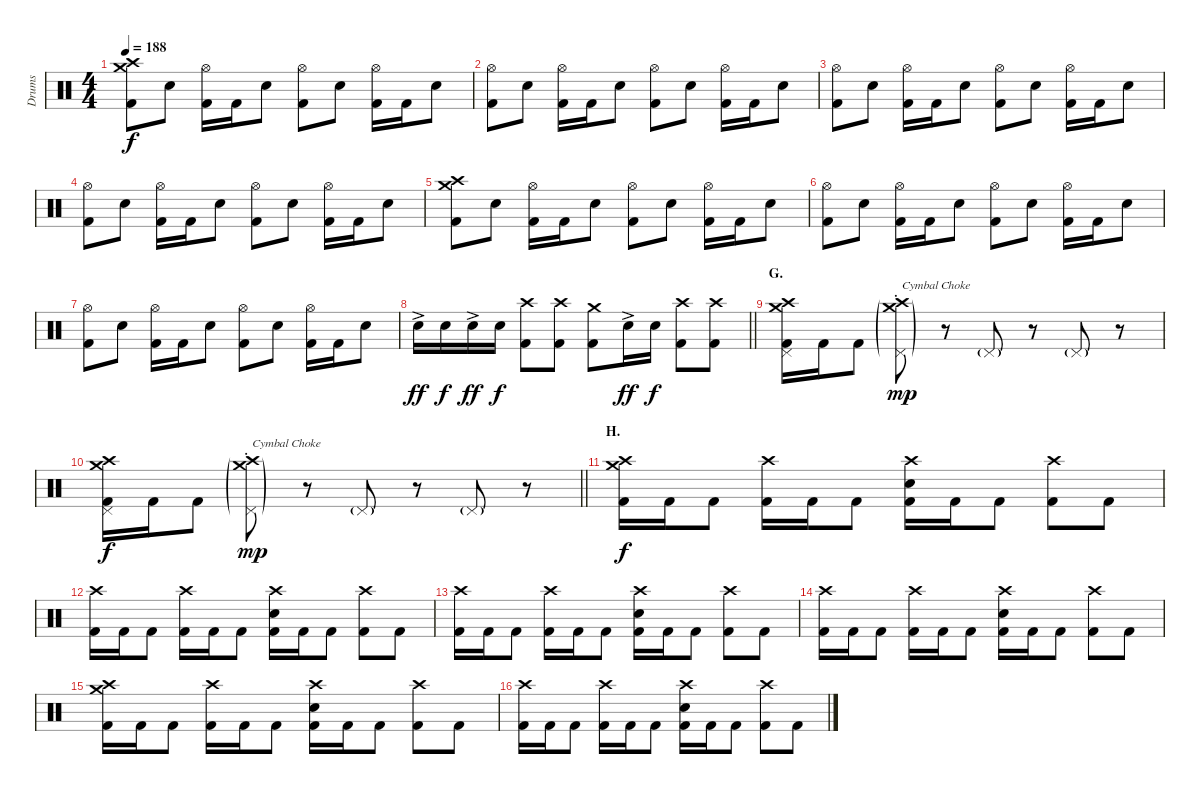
\track ("Drums" "Drums") {instrument percussion}
\staff {score}
\articulation defaults
\ts (4 4)
\tempo 188
\clef neutral
\ks c
("Crash medium (hit)" "Crash high (hit)" "Kick (hit) 2").8{dy f} "Electric Snare (hit)".8 ("Hi-Hat (open)" "Kick (hit) 2").16 "Kick (hit) 2".16 "Electric Snare (hit)".8 ("Hi-Hat (open)" "Kick (hit) 2").8 "Electric Snare (hit)".8 ("Hi-Hat (open)" "Kick (hit) 2").16 "Kick (hit) 2".16 "Electric Snare (hit)".8 |
("Hi-Hat (open)" "Kick (hit) 2").8 "Electric Snare (hit)".8 ("Hi-Hat (open)" "Kick (hit) 2").16 "Kick (hit) 2".16 "Electric Snare (hit)".8 ("Hi-Hat (open)" "Kick (hit) 2").8 "Electric Snare (hit)".8 ("Hi-Hat (open)" "Kick (hit) 2").16 "Kick (hit) 2".16 "Electric Snare (hit)".8 |
("Hi-Hat (open)" "Kick (hit) 2").8 "Electric Snare (hit)".8 ("Hi-Hat (open)" "Kick (hit) 2").16 "Kick (hit) 2".16 "Electric Snare (hit)".8 ("Hi-Hat (open)" "Kick (hit) 2").8 "Electric Snare (hit)".8 ("Hi-Hat (open)" "Kick (hit) 2").16 "Kick (hit) 2".16 "Electric Snare (hit)".8 |
("Hi-Hat (open)" "Kick (hit) 2").8 "Electric Snare (hit)".8 ("Hi-Hat (open)" "Kick (hit) 2").16 "Kick (hit) 2".16 "Electric Snare (hit)".8 ("Hi-Hat (open)" "Kick (hit) 2").8 "Electric Snare (hit)".8 ("Hi-Hat (open)" "Kick (hit) 2").16 "Kick (hit) 2".16 "Electric Snare (hit)".8 |
("Crash medium (hit)" "Crash high (hit)" "Kick (hit) 2").8 "Electric Snare (hit)".8 ("Hi-Hat (open)" "Kick (hit) 2").16 "Kick (hit) 2".16 "Electric Snare (hit)".8 ("Hi-Hat (open)" "Kick (hit) 2").8 "Electric Snare (hit)".8 ("Hi-Hat (open)" "Kick (hit) 2").16 "Kick (hit) 2".16 "Electric Snare (hit)".8 |
("Hi-Hat (open)" "Kick (hit) 2").8 "Electric Snare (hit)".8 ("Hi-Hat (open)" "Kick (hit) 2").16 "Kick (hit) 2".16 "Electric Snare (hit)".8 ("Hi-Hat (open)" "Kick (hit) 2").8 "Electric Snare (hit)".8 ("Hi-Hat (open)" "Kick (hit) 2").16 "Kick (hit) 2".16 "Electric Snare (hit)".8 |
("Hi-Hat (open)" "Kick (hit) 2").8 "Electric Snare (hit)".8 ("Hi-Hat (open)" "Kick (hit) 2").16 "Kick (hit) 2".16 "Electric Snare (hit)".8 ("Hi-Hat (open)" "Kick (hit) 2").8 "Electric Snare (hit)".8 ("Hi-Hat (open)" "Kick (hit) 2").16 "Kick (hit) 2".16 "Electric Snare (hit)".8 |
\barLineRight lightlight "Electric Snare (hit)"{ac}.16{dy ff} "Electric Snare (hit)".16{dy f} "Electric Snare (hit)"{ac}.16{dy ff} "Electric Snare (hit)".16{dy f}
("Crash high (hit)" "Kick (hit) 2").8 ("Crash high (hit)" "Kick (hit) 2").8 ("Crash medium (hit)" "Kick (hit) 2").8 "Electric Snare (hit)"{ac}.16{dy ff} "Electric Snare (hit)".16{dy f} ("Crash high (hit)" "Kick (hit) 2").8 ("Crash high (hit)" "Kick (hit) 2").8 |
\section ("" "G.")
("Crash medium (hit)" "Crash high (hit)" "Pedal Hi-Hat (hit)" "Kick (hit) 2").16 "Kick (hit) 2".16 "Kick (hit) 2".8 ("Crash medium (hit)"{g st} "Crash high (hit)"{g st} "Pedal Hi-Hat (hit)"{g}).8{txt "Cymbal Choke" dy mp} r.8 "Pedal Hi-Hat (hit)"{g}.8 r.8 "Pedal Hi-Hat (hit)"{g}.8 r.8 |
\barLineRight lightlight
("Crash medium (hit)" "Crash high (hit)" "Pedal Hi-Hat (hit)" "Kick (hit) 2").16{dy f} "Kick (hit) 2".16 "Kick (hit) 2".8 ("Crash medium (hit)"{g st} "Crash high (hit)"{g st} "Pedal Hi-Hat (hit)"{g}).8{txt "Cymbal Choke" dy mp} r.8 "Pedal Hi-Hat (hit)"{g}.8 r.8 "Pedal Hi-Hat (hit)"{g}.8 r.8 |
\section ("" "H.")
("Crash medium (hit)" "Crash high (hit)" "Kick (hit) 2").16{dy f} "Kick (hit) 2".16 "Kick (hit) 2".8 ("Crash high (hit)" "Kick (hit) 2").16 "Kick (hit) 2".16 "Kick (hit) 2".8 ("Crash high (hit)" "Electric Snare (hit)" "Kick (hit) 2").16 "Kick (hit) 2".16 "Kick (hit) 2".8 ("Crash high (hit)" "Kick (hit) 2").8 "Kick (hit) 2".8 |
("Crash high (hit)" "Kick (hit) 2").16 "Kick (hit) 2".16 "Kick (hit) 2".8 ("Crash high (hit)" "Kick (hit) 2").16 "Kick (hit) 2".16 "Kick (hit) 2".8 ("Crash high (hit)" "Electric Snare (hit)" "Kick (hit) 2").16 "Kick (hit) 2".16 "Kick (hit) 2".8 ("Crash high (hit)" "Kick (hit) 2").8 "Kick (hit) 2".8 |
("Crash high (hit)" "Kick (hit) 2").16 "Kick (hit) 2".16 "Kick (hit) 2".8 ("Crash high (hit)" "Kick (hit) 2").16 "Kick (hit) 2".16 "Kick (hit) 2".8 ("Crash high (hit)" "Electric Snare (hit)" "Kick (hit) 2").16 "Kick (hit) 2".16 "Kick (hit) 2".8 ("Crash high (hit)" "Kick (hit) 2").8 "Kick (hit) 2".8 |
("Crash high (hit)" "Kick (hit) 2").16 "Kick (hit) 2".16 "Kick (hit) 2".8 ("Crash high (hit)" "Kick (hit) 2").16 "Kick (hit) 2".16 "Kick (hit) 2".8 ("Crash high (hit)" "Electric Snare (hit)" "Kick (hit) 2").16 "Kick (hit) 2".16 "Kick (hit) 2".8 ("Crash high (hit)" "Kick (hit) 2").8 "Kick (hit) 2".8 |
("Crash medium (hit)" "Crash high (hit)" "Kick (hit) 2").16 "Kick (hit) 2".16 "Kick (hit) 2".8 ("Crash high (hit)" "Kick (hit) 2").16 "Kick (hit) 2".16 "Kick (hit) 2".8 ("Crash high (hit)" "Electric Snare (hit)" "Kick (hit) 2").16 "Kick (hit) 2".16 "Kick (hit) 2".8 ("Crash high (hit)" "Kick (hit) 2").8 "Kick (hit) 2".8 |
("Crash high (hit)" "Kick (hit) 2").16 "Kick (hit) 2".16 "Kick (hit) 2".8 ("Crash high (hit)" "Kick (hit) 2").16 "Kick (hit) 2".16 "Kick (hit) 2".8 ("Crash high (hit)" "Electric Snare (hit)" "Kick (hit) 2").16 "Kick (hit) 2".16 "Kick (hit) 2".8 ("Crash high (hit)" "Kick (hit) 2").8 "Kick (hit) 2".8
